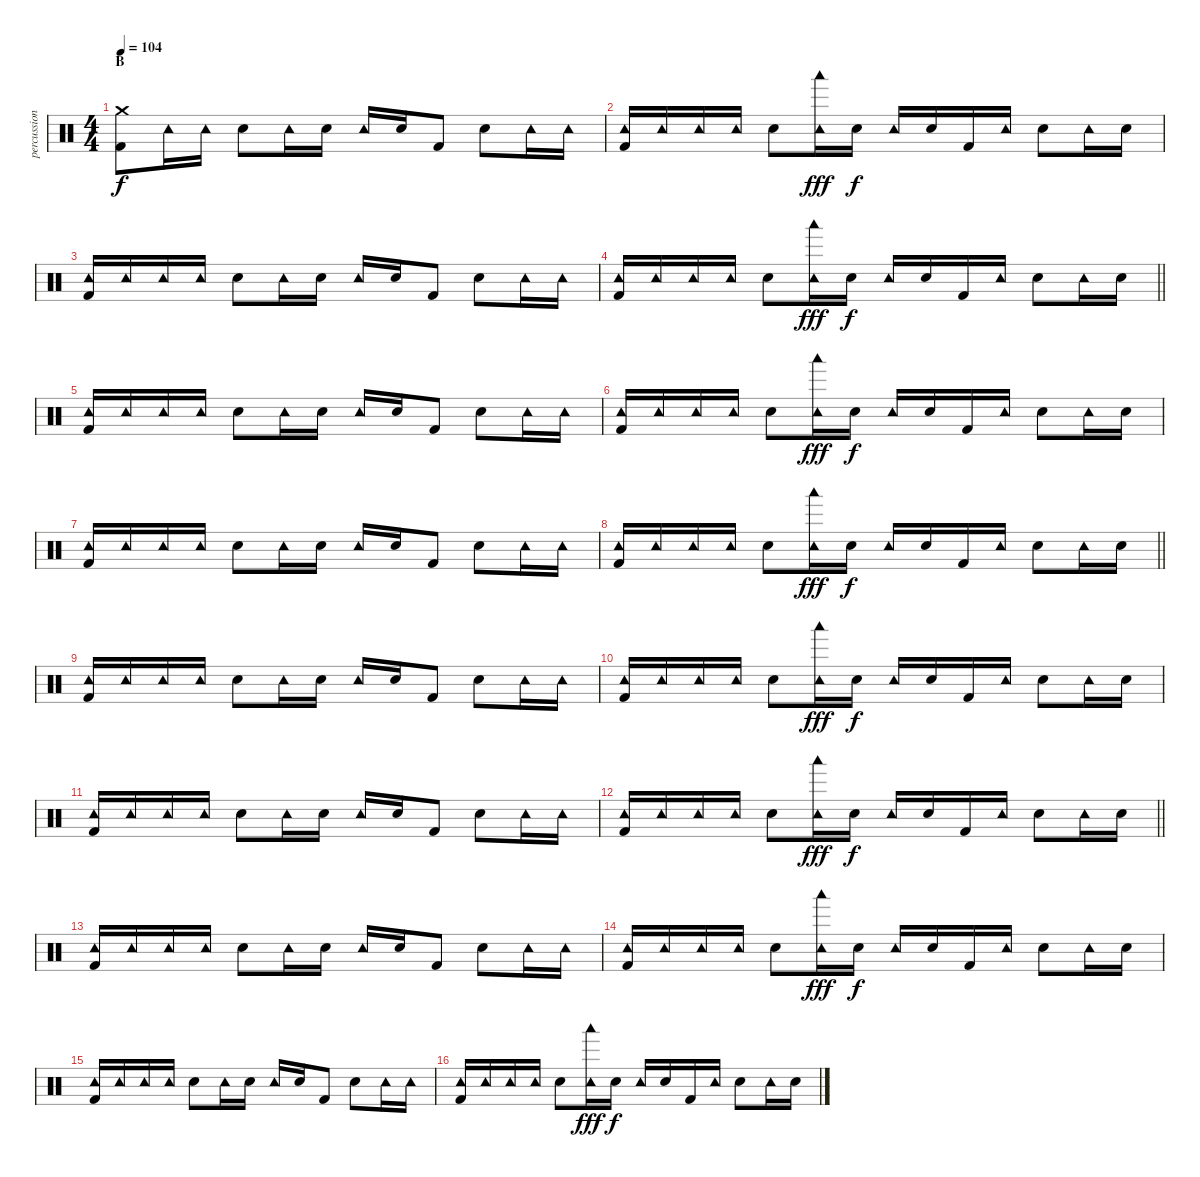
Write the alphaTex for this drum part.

\track ("percussion" "percussion") {instrument percussion}
\staff {score}
\articulation defaults
\ts (4 4)
\section ("" "B")
\tempo 104
\clef neutral
\ks c
("Crash medium (hit)" "Kick (hit) 2").8{dy f} "Tambourine (hit)".16 "Tambourine (hit)".16 "Snare (hit) 2".8 "Tambourine (hit)".16 "Snare (hit) 2".16 "Tambourine (hit)".16 "Snare (hit) 2".16 "Kick (hit) 2".8 "Snare (hit) 2".8 "Tambourine (hit)".16 "Tambourine (hit)".16 |
("Tambourine (hit)" "Kick (hit) 2").16 "Tambourine (hit)".16 "Tambourine (hit)".16 "Tambourine (hit)".16 "Snare (hit) 2".8 ("Woodblock low (hit)" "Tambourine (hit)").16{dy fff} "Snare (hit) 2".16{dy f} "Tambourine (hit)".16 "Snare (hit) 2".16 "Kick (hit) 2".16 "Tambourine (hit)".16 "Snare (hit) 2".8 "Tambourine (hit)".16 "Snare (hit) 2".16 |
("Tambourine (hit)" "Kick (hit) 2").16 "Tambourine (hit)".16 "Tambourine (hit)".16 "Tambourine (hit)".16 "Snare (hit) 2".8 "Tambourine (hit)".16 "Snare (hit) 2".16 "Tambourine (hit)".16 "Snare (hit) 2".16 "Kick (hit) 2".8 "Snare (hit) 2".8 "Tambourine (hit)".16 "Tambourine (hit)".16 |
\barLineRight lightlight
("Tambourine (hit)" "Kick (hit) 2").16 "Tambourine (hit)".16 "Tambourine (hit)".16 "Tambourine (hit)".16 "Snare (hit) 2".8 ("Woodblock low (hit)" "Tambourine (hit)").16{dy fff} "Snare (hit) 2".16{dy f} "Tambourine (hit)".16 "Snare (hit) 2".16 "Kick (hit) 2".16 "Tambourine (hit)".16 "Snare (hit) 2".8 "Tambourine (hit)".16 "Snare (hit) 2".16 |
("Tambourine (hit)" "Kick (hit) 2").16 "Tambourine (hit)".16 "Tambourine (hit)".16 "Tambourine (hit)".16 "Snare (hit) 2".8 "Tambourine (hit)".16 "Snare (hit) 2".16 "Tambourine (hit)".16 "Snare (hit) 2".16 "Kick (hit) 2".8 "Snare (hit) 2".8 "Tambourine (hit)".16 "Tambourine (hit)".16 |
("Tambourine (hit)" "Kick (hit) 2").16 "Tambourine (hit)".16 "Tambourine (hit)".16 "Tambourine (hit)".16 "Snare (hit) 2".8 ("Woodblock low (hit)" "Tambourine (hit)").16{dy fff} "Snare (hit) 2".16{dy f} "Tambourine (hit)".16 "Snare (hit) 2".16 "Kick (hit) 2".16 "Tambourine (hit)".16 "Snare (hit) 2".8 "Tambourine (hit)".16 "Snare (hit) 2".16 |
("Tambourine (hit)" "Kick (hit) 2").16 "Tambourine (hit)".16 "Tambourine (hit)".16 "Tambourine (hit)".16 "Snare (hit) 2".8 "Tambourine (hit)".16 "Snare (hit) 2".16 "Tambourine (hit)".16 "Snare (hit) 2".16 "Kick (hit) 2".8 "Snare (hit) 2".8 "Tambourine (hit)".16 "Tambourine (hit)".16 |
\barLineRight lightlight
("Tambourine (hit)" "Kick (hit) 2").16 "Tambourine (hit)".16 "Tambourine (hit)".16 "Tambourine (hit)".16 "Snare (hit) 2".8 ("Woodblock low (hit)" "Tambourine (hit)").16{dy fff} "Snare (hit) 2".16{dy f} "Tambourine (hit)".16 "Snare (hit) 2".16 "Kick (hit) 2".16 "Tambourine (hit)".16 "Snare (hit) 2".8 "Tambourine (hit)".16 "Snare (hit) 2".16 |
("Tambourine (hit)" "Kick (hit) 2").16 "Tambourine (hit)".16 "Tambourine (hit)".16 "Tambourine (hit)".16 "Snare (hit) 2".8 "Tambourine (hit)".16 "Snare (hit) 2".16 "Tambourine (hit)".16 "Snare (hit) 2".16 "Kick (hit) 2".8 "Snare (hit) 2".8 "Tambourine (hit)".16 "Tambourine (hit)".16 |
("Tambourine (hit)" "Kick (hit) 2").16 "Tambourine (hit)".16 "Tambourine (hit)".16 "Tambourine (hit)".16 "Snare (hit) 2".8 ("Woodblock low (hit)" "Tambourine (hit)").16{dy fff} "Snare (hit) 2".16{dy f} "Tambourine (hit)".16 "Snare (hit) 2".16 "Kick (hit) 2".16 "Tambourine (hit)".16 "Snare (hit) 2".8 "Tambourine (hit)".16 "Snare (hit) 2".16 |
("Tambourine (hit)" "Kick (hit) 2").16 "Tambourine (hit)".16 "Tambourine (hit)".16 "Tambourine (hit)".16 "Snare (hit) 2".8 "Tambourine (hit)".16 "Snare (hit) 2".16 "Tambourine (hit)".16 "Snare (hit) 2".16 "Kick (hit) 2".8 "Snare (hit) 2".8 "Tambourine (hit)".16 "Tambourine (hit)".16 |
\barLineRight lightlight
("Tambourine (hit)" "Kick (hit) 2").16 "Tambourine (hit)".16 "Tambourine (hit)".16 "Tambourine (hit)".16 "Snare (hit) 2".8 ("Woodblock low (hit)" "Tambourine (hit)").16{dy fff} "Snare (hit) 2".16{dy f} "Tambourine (hit)".16 "Snare (hit) 2".16 "Kick (hit) 2".16 "Tambourine (hit)".16 "Snare (hit) 2".8 "Tambourine (hit)".16 "Snare (hit) 2".16 |
("Tambourine (hit)" "Kick (hit) 2").16 "Tambourine (hit)".16 "Tambourine (hit)".16 "Tambourine (hit)".16 "Snare (hit) 2".8 "Tambourine (hit)".16 "Snare (hit) 2".16 "Tambourine (hit)".16 "Snare (hit) 2".16 "Kick (hit) 2".8 "Snare (hit) 2".8 "Tambourine (hit)".16 "Tambourine (hit)".16 |
("Tambourine (hit)" "Kick (hit) 2").16 "Tambourine (hit)".16 "Tambourine (hit)".16 "Tambourine (hit)".16 "Snare (hit) 2".8 ("Woodblock low (hit)" "Tambourine (hit)").16{dy fff} "Snare (hit) 2".16{dy f} "Tambourine (hit)".16 "Snare (hit) 2".16 "Kick (hit) 2".16 "Tambourine (hit)".16 "Snare (hit) 2".8 "Tambourine (hit)".16 "Snare (hit) 2".16 |
("Tambourine (hit)" "Kick (hit) 2").16 "Tambourine (hit)".16 "Tambourine (hit)".16 "Tambourine (hit)".16 "Snare (hit) 2".8 "Tambourine (hit)".16 "Snare (hit) 2".16 "Tambourine (hit)".16 "Snare (hit) 2".16 "Kick (hit) 2".8 "Snare (hit) 2".8 "Tambourine (hit)".16 "Tambourine (hit)".16 |
("Tambourine (hit)" "Kick (hit) 2").16 "Tambourine (hit)".16 "Tambourine (hit)".16 "Tambourine (hit)".16 "Snare (hit) 2".8 ("Woodblock low (hit)" "Tambourine (hit)").16{dy fff} "Snare (hit) 2".16{dy f} "Tambourine (hit)".16 "Snare (hit) 2".16 "Kick (hit) 2".16 "Tambourine (hit)".16 "Snare (hit) 2".8 "Tambourine (hit)".16 "Snare (hit) 2".16
